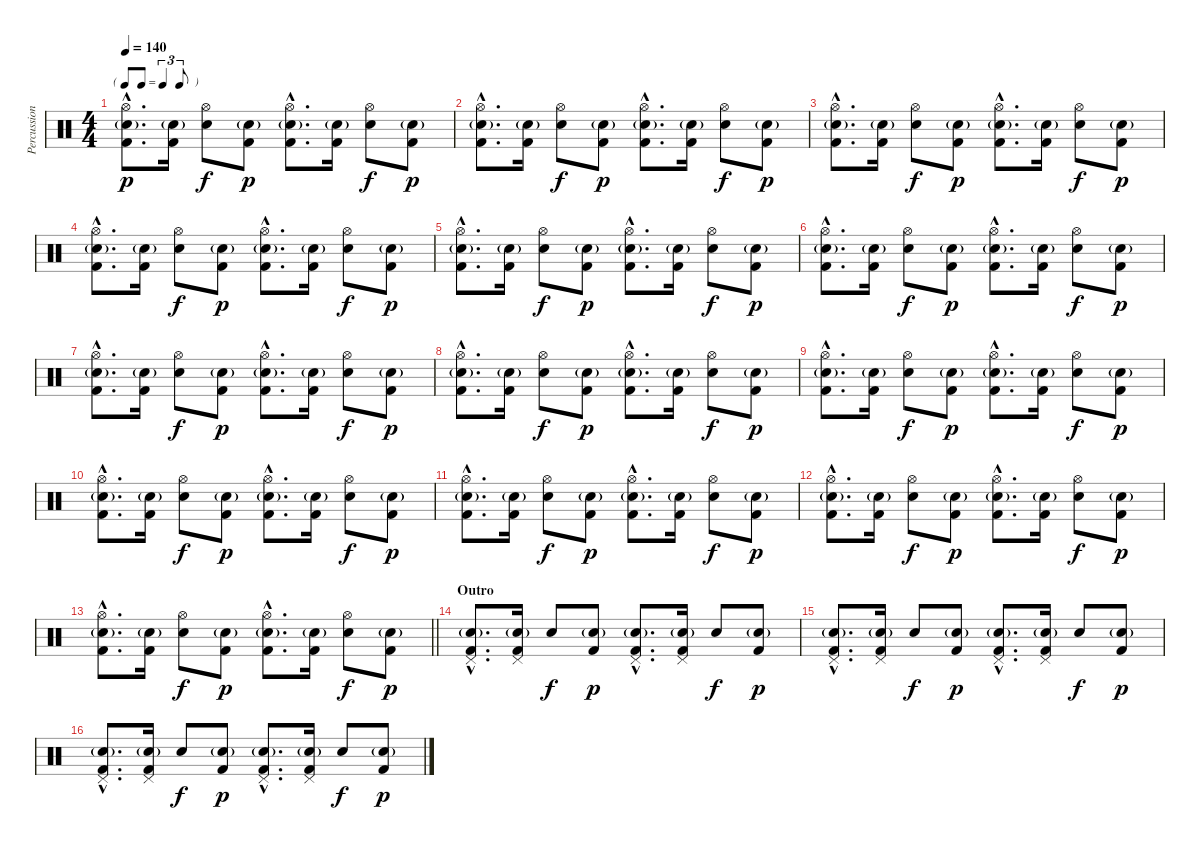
\track ("Percussion" "Percussion") {instrument percussion}
\staff {score}
\articulation defaults
\ts (4 4)
\tf triplet8th
\tempo 140
\clef neutral
\ks c
("Hi-Hat (open)"{hac} "Snare (hit) 2"{g hac} "Kick (hit) 2"{hac}).8{d dy p} ("Snare (hit) 2"{g} "Kick (hit) 2").16 ("Hi-Hat (open)" "Snare (hit) 2").8{dy f} ("Snare (hit) 2"{g} "Kick (hit) 2").8{dy p} ("Hi-Hat (open)"{hac} "Snare (hit) 2"{g hac} "Kick (hit) 2"{hac}).8{d} ("Snare (hit) 2"{g} "Kick (hit) 2").16 ("Hi-Hat (open)" "Snare (hit) 2").8{dy f} ("Snare (hit) 2"{g} "Kick (hit) 2").8{dy p} |
("Hi-Hat (open)"{hac} "Snare (hit) 2"{g hac} "Kick (hit) 2"{hac}).8{d} ("Snare (hit) 2"{g} "Kick (hit) 2").16 ("Hi-Hat (open)" "Snare (hit) 2").8{dy f} ("Snare (hit) 2"{g} "Kick (hit) 2").8{dy p} ("Hi-Hat (open)"{hac} "Snare (hit) 2"{g hac} "Kick (hit) 2"{hac}).8{d} ("Snare (hit) 2"{g} "Kick (hit) 2").16 ("Hi-Hat (open)" "Snare (hit) 2").8{dy f} ("Snare (hit) 2"{g} "Kick (hit) 2").8{dy p} |
("Hi-Hat (open)"{hac} "Snare (hit) 2"{g hac} "Kick (hit) 2"{hac}).8{d} ("Snare (hit) 2"{g} "Kick (hit) 2").16 ("Hi-Hat (open)" "Snare (hit) 2").8{dy f} ("Snare (hit) 2"{g} "Kick (hit) 2").8{dy p} ("Hi-Hat (open)"{hac} "Snare (hit) 2"{g hac} "Kick (hit) 2"{hac}).8{d} ("Snare (hit) 2"{g} "Kick (hit) 2").16 ("Hi-Hat (open)" "Snare (hit) 2").8{dy f} ("Snare (hit) 2"{g} "Kick (hit) 2").8{dy p} |
("Hi-Hat (open)"{hac} "Snare (hit) 2"{g hac} "Kick (hit) 2"{hac}).8{d} ("Snare (hit) 2"{g} "Kick (hit) 2").16 ("Hi-Hat (open)" "Snare (hit) 2").8{dy f} ("Snare (hit) 2"{g} "Kick (hit) 2").8{dy p} ("Hi-Hat (open)"{hac} "Snare (hit) 2"{g hac} "Kick (hit) 2"{hac}).8{d} ("Snare (hit) 2"{g} "Kick (hit) 2").16 ("Hi-Hat (open)" "Snare (hit) 2").8{dy f} ("Snare (hit) 2"{g} "Kick (hit) 2").8{dy p} |
("Hi-Hat (open)"{hac} "Snare (hit) 2"{g hac} "Kick (hit) 2"{hac}).8{d} ("Snare (hit) 2"{g} "Kick (hit) 2").16 ("Hi-Hat (open)" "Snare (hit) 2").8{dy f} ("Snare (hit) 2"{g} "Kick (hit) 2").8{dy p} ("Hi-Hat (open)"{hac} "Snare (hit) 2"{g hac} "Kick (hit) 2"{hac}).8{d} ("Snare (hit) 2"{g} "Kick (hit) 2").16 ("Hi-Hat (open)" "Snare (hit) 2").8{dy f} ("Snare (hit) 2"{g} "Kick (hit) 2").8{dy p} |
("Hi-Hat (open)"{hac} "Snare (hit) 2"{g hac} "Kick (hit) 2"{hac}).8{d} ("Snare (hit) 2"{g} "Kick (hit) 2").16 ("Hi-Hat (open)" "Snare (hit) 2").8{dy f} ("Snare (hit) 2"{g} "Kick (hit) 2").8{dy p} ("Hi-Hat (open)"{hac} "Snare (hit) 2"{g hac} "Kick (hit) 2"{hac}).8{d} ("Snare (hit) 2"{g} "Kick (hit) 2").16 ("Hi-Hat (open)" "Snare (hit) 2").8{dy f} ("Snare (hit) 2"{g} "Kick (hit) 2").8{dy p} |
("Hi-Hat (open)"{hac} "Snare (hit) 2"{g hac} "Kick (hit) 2"{hac}).8{d} ("Snare (hit) 2"{g} "Kick (hit) 2").16 ("Hi-Hat (open)" "Snare (hit) 2").8{dy f} ("Snare (hit) 2"{g} "Kick (hit) 2").8{dy p} ("Hi-Hat (open)"{hac} "Snare (hit) 2"{g hac} "Kick (hit) 2"{hac}).8{d} ("Snare (hit) 2"{g} "Kick (hit) 2").16 ("Hi-Hat (open)" "Snare (hit) 2").8{dy f} ("Snare (hit) 2"{g} "Kick (hit) 2").8{dy p} |
("Hi-Hat (open)"{hac} "Snare (hit) 2"{g hac} "Kick (hit) 2"{hac}).8{d} ("Snare (hit) 2"{g} "Kick (hit) 2").16 ("Hi-Hat (open)" "Snare (hit) 2").8{dy f} ("Snare (hit) 2"{g} "Kick (hit) 2").8{dy p} ("Hi-Hat (open)"{hac} "Snare (hit) 2"{g hac} "Kick (hit) 2"{hac}).8{d} ("Snare (hit) 2"{g} "Kick (hit) 2").16 ("Hi-Hat (open)" "Snare (hit) 2").8{dy f} ("Snare (hit) 2"{g} "Kick (hit) 2").8{dy p} |
("Hi-Hat (open)"{hac} "Snare (hit) 2"{g hac} "Kick (hit) 2"{hac}).8{d} ("Snare (hit) 2"{g} "Kick (hit) 2").16 ("Hi-Hat (open)" "Snare (hit) 2").8{dy f} ("Snare (hit) 2"{g} "Kick (hit) 2").8{dy p} ("Hi-Hat (open)"{hac} "Snare (hit) 2"{g hac} "Kick (hit) 2"{hac}).8{d} ("Snare (hit) 2"{g} "Kick (hit) 2").16 ("Hi-Hat (open)" "Snare (hit) 2").8{dy f} ("Snare (hit) 2"{g} "Kick (hit) 2").8{dy p} |
("Hi-Hat (open)"{hac} "Snare (hit) 2"{g hac} "Kick (hit) 2"{hac}).8{d} ("Snare (hit) 2"{g} "Kick (hit) 2").16 ("Hi-Hat (open)" "Snare (hit) 2").8{dy f} ("Snare (hit) 2"{g} "Kick (hit) 2").8{dy p} ("Hi-Hat (open)"{hac} "Snare (hit) 2"{g hac} "Kick (hit) 2"{hac}).8{d} ("Snare (hit) 2"{g} "Kick (hit) 2").16 ("Hi-Hat (open)" "Snare (hit) 2").8{dy f} ("Snare (hit) 2"{g} "Kick (hit) 2").8{dy p} |
("Hi-Hat (open)"{hac} "Snare (hit) 2"{g hac} "Kick (hit) 2"{hac}).8{d} ("Snare (hit) 2"{g} "Kick (hit) 2").16 ("Hi-Hat (open)" "Snare (hit) 2").8{dy f} ("Snare (hit) 2"{g} "Kick (hit) 2").8{dy p} ("Hi-Hat (open)"{hac} "Snare (hit) 2"{g hac} "Kick (hit) 2"{hac}).8{d} ("Snare (hit) 2"{g} "Kick (hit) 2").16 ("Hi-Hat (open)" "Snare (hit) 2").8{dy f} ("Snare (hit) 2"{g} "Kick (hit) 2").8{dy p} |
("Hi-Hat (open)"{hac} "Snare (hit) 2"{g hac} "Kick (hit) 2"{hac}).8{d} ("Snare (hit) 2"{g} "Kick (hit) 2").16 ("Hi-Hat (open)" "Snare (hit) 2").8{dy f} ("Snare (hit) 2"{g} "Kick (hit) 2").8{dy p} ("Hi-Hat (open)"{hac} "Snare (hit) 2"{g hac} "Kick (hit) 2"{hac}).8{d} ("Snare (hit) 2"{g} "Kick (hit) 2").16 ("Hi-Hat (open)" "Snare (hit) 2").8{dy f} ("Snare (hit) 2"{g} "Kick (hit) 2").8{dy p} |
\barLineRight lightlight
("Hi-Hat (open)"{hac} "Snare (hit) 2"{g hac} "Kick (hit) 2"{hac}).8{d} ("Snare (hit) 2"{g} "Kick (hit) 2").16 ("Hi-Hat (open)" "Snare (hit) 2").8{dy f} ("Snare (hit) 2"{g} "Kick (hit) 2").8{dy p} ("Hi-Hat (open)"{hac} "Snare (hit) 2"{g hac} "Kick (hit) 2"{hac}).8{d} ("Snare (hit) 2"{g} "Kick (hit) 2").16 ("Hi-Hat (open)" "Snare (hit) 2").8{dy f} ("Snare (hit) 2"{g} "Kick (hit) 2").8{dy p} |
\section ("" "Outro")
("Pedal Hi-Hat (hit)"{hac} "Snare (hit) 2"{g hac} "Kick (hit) 2"{hac}).8{d} ("Pedal Hi-Hat (hit)" "Snare (hit) 2"{g} "Kick (hit) 2").16 "Snare (hit) 2".8{dy f} ("Snare (hit) 2"{g} "Kick (hit) 2").8{dy p} ("Pedal Hi-Hat (hit)"{hac} "Snare (hit) 2"{g hac} "Kick (hit) 2"{hac}).8{d} ("Pedal Hi-Hat (hit)" "Snare (hit) 2"{g} "Kick (hit) 2").16 "Snare (hit) 2".8{dy f} ("Snare (hit) 2"{g} "Kick (hit) 2").8{dy p} |
("Pedal Hi-Hat (hit)"{hac} "Snare (hit) 2"{g hac} "Kick (hit) 2"{hac}).8{d} ("Pedal Hi-Hat (hit)" "Snare (hit) 2"{g} "Kick (hit) 2").16 "Snare (hit) 2".8{dy f} ("Snare (hit) 2"{g} "Kick (hit) 2").8{dy p} ("Pedal Hi-Hat (hit)"{hac} "Snare (hit) 2"{g hac} "Kick (hit) 2"{hac}).8{d} ("Pedal Hi-Hat (hit)" "Snare (hit) 2"{g} "Kick (hit) 2").16 "Snare (hit) 2".8{dy f} ("Snare (hit) 2"{g} "Kick (hit) 2").8{dy p} |
("Pedal Hi-Hat (hit)"{hac} "Snare (hit) 2"{g hac} "Kick (hit) 2"{hac}).8{d} ("Pedal Hi-Hat (hit)" "Snare (hit) 2"{g} "Kick (hit) 2").16 "Snare (hit) 2".8{dy f} ("Snare (hit) 2"{g} "Kick (hit) 2").8{dy p} ("Pedal Hi-Hat (hit)"{hac} "Snare (hit) 2"{g hac} "Kick (hit) 2"{hac}).8{d} ("Pedal Hi-Hat (hit)" "Snare (hit) 2"{g} "Kick (hit) 2").16 "Snare (hit) 2".8{dy f} ("Snare (hit) 2"{g} "Kick (hit) 2").8{dy p}
